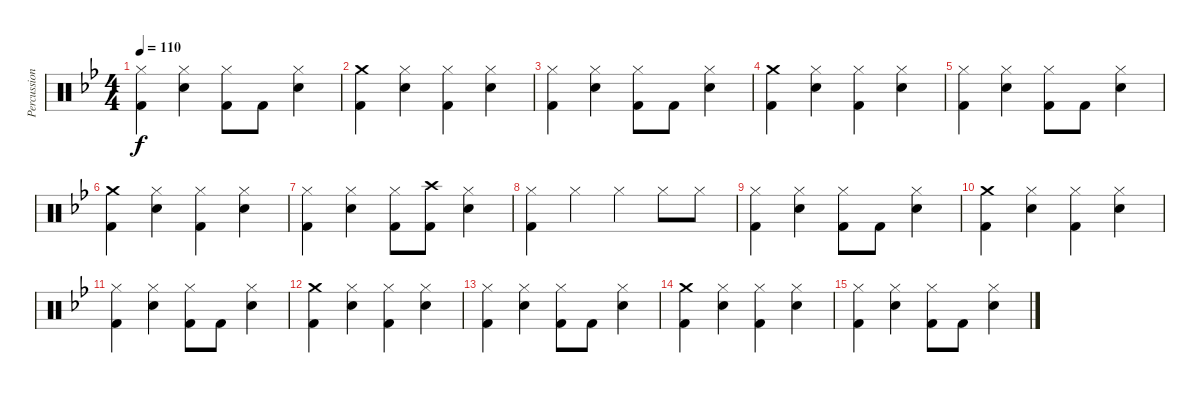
\track ("Percussion" "Percussion") {instrument percussion}
\staff {score}
\articulation defaults
\ts (4 4)
\tempo 110
\clef neutral
\ks gminor
("Hi-Hat (closed)" "Kick (hit) 2").4{dy f} ("Hi-Hat (closed)" "Electric Snare (hit)").4 ("Hi-Hat (closed)" "Kick (hit) 2").8 "Kick (hit) 2".8 ("Hi-Hat (closed)" "Electric Snare (hit)").4 |
("Crash medium (hit)" "Kick (hit) 2").4 ("Hi-Hat (closed)" "Electric Snare (hit)").4 ("Hi-Hat (closed)" "Kick (hit) 2").4 ("Hi-Hat (closed)" "Electric Snare (hit)").4 |
("Hi-Hat (closed)" "Kick (hit) 2").4 ("Hi-Hat (closed)" "Electric Snare (hit)").4 ("Hi-Hat (closed)" "Kick (hit) 2").8 "Kick (hit) 2".8 ("Hi-Hat (closed)" "Electric Snare (hit)").4 |
("Crash medium (hit)" "Kick (hit) 2").4 ("Hi-Hat (closed)" "Electric Snare (hit)").4 ("Hi-Hat (closed)" "Kick (hit) 2").4 ("Hi-Hat (closed)" "Electric Snare (hit)").4 |
("Hi-Hat (closed)" "Kick (hit) 2").4 ("Hi-Hat (closed)" "Electric Snare (hit)").4 ("Hi-Hat (closed)" "Kick (hit) 2").8 "Kick (hit) 2".8 ("Hi-Hat (closed)" "Electric Snare (hit)").4 |
("Crash medium (hit)" "Kick (hit) 2").4 ("Hi-Hat (closed)" "Electric Snare (hit)").4 ("Hi-Hat (closed)" "Kick (hit) 2").4 ("Hi-Hat (closed)" "Electric Snare (hit)").4 |
("Hi-Hat (closed)" "Kick (hit) 2").4 ("Hi-Hat (closed)" "Electric Snare (hit)").4 ("Hi-Hat (closed)" "Kick (hit) 2").8 ("Crash high (hit)" "Kick (hit) 2").8 ("Hi-Hat (closed)" "Electric Snare (hit)").4 |
("Hi-Hat (closed)" "Kick (hit) 2").4 "Hi-Hat (closed)".4 "Hi-Hat (closed)".4 "Hi-Hat (closed)".8 "Hi-Hat (closed)".8 |
("Hi-Hat (closed)" "Kick (hit) 2").4 ("Hi-Hat (closed)" "Electric Snare (hit)").4 ("Hi-Hat (closed)" "Kick (hit) 2").8 "Kick (hit) 2".8 ("Hi-Hat (closed)" "Electric Snare (hit)").4 |
("Crash medium (hit)" "Kick (hit) 2").4 ("Hi-Hat (closed)" "Electric Snare (hit)").4 ("Hi-Hat (closed)" "Kick (hit) 2").4 ("Hi-Hat (closed)" "Electric Snare (hit)").4 |
("Hi-Hat (closed)" "Kick (hit) 2").4 ("Hi-Hat (closed)" "Electric Snare (hit)").4 ("Hi-Hat (closed)" "Kick (hit) 2").8 "Kick (hit) 2".8 ("Hi-Hat (closed)" "Electric Snare (hit)").4 |
("Crash medium (hit)" "Kick (hit) 2").4 ("Hi-Hat (closed)" "Electric Snare (hit)").4 ("Hi-Hat (closed)" "Kick (hit) 2").4 ("Hi-Hat (closed)" "Electric Snare (hit)").4 |
("Hi-Hat (closed)" "Kick (hit) 2").4 ("Hi-Hat (closed)" "Electric Snare (hit)").4 ("Hi-Hat (closed)" "Kick (hit) 2").8 "Kick (hit) 2".8 ("Hi-Hat (closed)" "Electric Snare (hit)").4 |
("Crash medium (hit)" "Kick (hit) 2").4 ("Hi-Hat (closed)" "Electric Snare (hit)").4 ("Hi-Hat (closed)" "Kick (hit) 2").4 ("Hi-Hat (closed)" "Electric Snare (hit)").4 |
("Hi-Hat (closed)" "Kick (hit) 2").4 ("Hi-Hat (closed)" "Electric Snare (hit)").4 ("Hi-Hat (closed)" "Kick (hit) 2").8 "Kick (hit) 2".8 ("Hi-Hat (closed)" "Electric Snare (hit)").4
